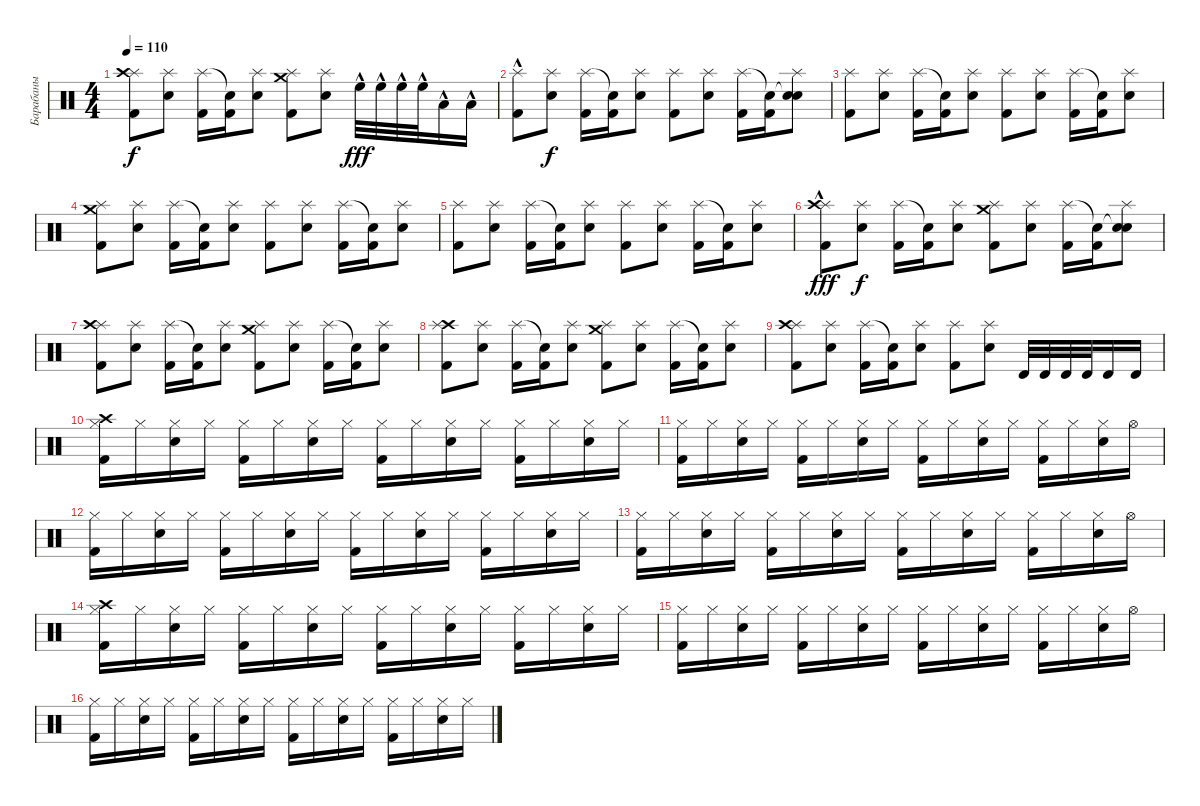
\track ("Барабаны" "Барабаны") {instrument percussion}
\staff {score}
\articulation defaults
\ts (4 4)
\tempo 110
\clef neutral
\ks c
("Kick (hit) 2" "Splash (hit)" "Crash high (hit)").8{dy f} ("Electric Snare (hit)" "Splash (hit)").8 ("Kick (hit) 2" "Splash (hit)").16 ("Kick (hit) 2" "Snare (hit)"{t}).16 ("Electric Snare (hit)" "Splash (hit)").8 ("Kick (hit) 2" "Crash medium (hit)" "Splash (hit)").8 ("Electric Snare (hit)" "Splash (hit)").8 "High Floor Tom (hit)"{hac}.32{dy fff} "High Floor Tom (hit)"{hac}.32 "High Floor Tom (hit)"{hac}.32 "High Floor Tom (hit)"{hac}.32 "Low Tom (hit)"{hac}.16 "Low Tom (hit)"{hac}.16 |
("Kick (hit) 2" "Splash (hit)"{hac}).8 ("Electric Snare (hit)" "Splash (hit)").8{dy f} ("Kick (hit) 2" "Splash (hit)").16 ("Kick (hit) 2" "Snare (hit)"{t}).16 ("Electric Snare (hit)" "Splash (hit)").8 ("Kick (hit) 2" "Splash (hit)").8 ("Electric Snare (hit)" "Splash (hit)").8 ("Kick (hit) 2" "Splash (hit)").16 ("Kick (hit) 2" "Snare (hit)"{t}).16 ("Electric Snare (hit)" "Snare (hit)"{t} "Splash (hit)").8 |
("Kick (hit) 2" "Splash (hit)").8 ("Electric Snare (hit)" "Splash (hit)").8 ("Kick (hit) 2" "Splash (hit)").16 ("Kick (hit) 2" "Snare (hit)"{t}).16 ("Electric Snare (hit)" "Splash (hit)").8 ("Kick (hit) 2" "Splash (hit)").8 ("Electric Snare (hit)" "Splash (hit)").8 ("Kick (hit) 2" "Splash (hit)").16 ("Kick (hit) 2" "Snare (hit)"{t}).16 ("Electric Snare (hit)" "Splash (hit)").8 |
("Kick (hit) 2" "Crash medium (hit)" "Splash (hit)").8 ("Electric Snare (hit)" "Splash (hit)").8 ("Kick (hit) 2" "Splash (hit)").16 ("Kick (hit) 2" "Snare (hit)"{t}).16 ("Electric Snare (hit)" "Splash (hit)").8 ("Kick (hit) 2" "Splash (hit)").8 ("Electric Snare (hit)" "Splash (hit)").8 ("Kick (hit) 2" "Splash (hit)").16 ("Kick (hit) 2" "Snare (hit)"{t}).16 ("Electric Snare (hit)" "Splash (hit)").8 |
("Kick (hit) 2" "Splash (hit)").8 ("Electric Snare (hit)" "Splash (hit)").8 ("Kick (hit) 2" "Splash (hit)").16 ("Kick (hit) 2" "Snare (hit)"{t}).16 ("Electric Snare (hit)" "Splash (hit)").8 ("Kick (hit) 2" "Splash (hit)").8 ("Electric Snare (hit)" "Splash (hit)").8 ("Kick (hit) 2" "Splash (hit)").16 ("Kick (hit) 2" "Snare (hit)"{t}).16 ("Electric Snare (hit)" "Splash (hit)").8 |
("Kick (hit) 2" "Splash (hit)"{hac} "Crash high (hit)").8{dy fff} ("Electric Snare (hit)" "Splash (hit)").8{dy f} ("Kick (hit) 2" "Splash (hit)").16 ("Kick (hit) 2" "Snare (hit)"{t}).16 ("Electric Snare (hit)" "Splash (hit)").8 ("Kick (hit) 2" "Crash medium (hit)" "Splash (hit)").8 ("Electric Snare (hit)" "Splash (hit)").8 ("Kick (hit) 2" "Splash (hit)").16 ("Kick (hit) 2" "Snare (hit)"{t}).16 ("Electric Snare (hit)" "Snare (hit)"{t} "Splash (hit)").8 |
("Kick (hit) 2" "Splash (hit)" "Crash high (hit)").8 ("Electric Snare (hit)" "Splash (hit)").8 ("Kick (hit) 2" "Splash (hit)").16 ("Kick (hit) 2" "Snare (hit)"{t}).16 ("Electric Snare (hit)" "Splash (hit)").8 ("Kick (hit) 2" "Crash medium (hit)" "Splash (hit)").8 ("Electric Snare (hit)" "Splash (hit)").8 ("Kick (hit) 2" "Splash (hit)").16 ("Kick (hit) 2" "Snare (hit)"{t}).16 ("Electric Snare (hit)" "Splash (hit)").8 |
("Kick (hit) 2" "Crash high (hit)" "Splash (hit)").8 ("Electric Snare (hit)" "Splash (hit)").8 ("Kick (hit) 2" "Splash (hit)").16 ("Kick (hit) 2" "Snare (hit)"{t}).16 ("Electric Snare (hit)" "Splash (hit)").8 ("Kick (hit) 2" "Crash medium (hit)" "Splash (hit)").8 ("Electric Snare (hit)" "Splash (hit)").8 ("Kick (hit) 2" "Splash (hit)").16 ("Kick (hit) 2" "Snare (hit)"{t}).16 ("Electric Snare (hit)" "Splash (hit)").8 |
("Kick (hit) 2" "Splash (hit)" "Crash high (hit)").8 ("Electric Snare (hit)" "Splash (hit)").8 ("Kick (hit) 2" "Splash (hit)").16 ("Kick (hit) 2" "Snare (hit)"{t}).16 ("Electric Snare (hit)" "Splash (hit)").8 ("Kick (hit) 2" "Splash (hit)").8 ("Electric Snare (hit)" "Splash (hit)").8 "Timbale high (hit)".32 "Timbale high (hit)".32 "Timbale high (hit)".32 "Timbale high (hit)".32 "Timbale high (hit)".16 "Timbale high (hit)".16 |
("Kick (hit) 2" "Crash high (hit)" "Hi-Hat (closed)").16 "Hi-Hat (closed)".16 ("Electric Snare (hit)" "Hi-Hat (closed)").16 "Hi-Hat (closed)".16 ("Kick (hit) 2" "Hi-Hat (closed)").16 "Hi-Hat (closed)".16 ("Electric Snare (hit)" "Hi-Hat (closed)").16 "Hi-Hat (closed)".16 ("Kick (hit) 2" "Hi-Hat (closed)").16 "Hi-Hat (closed)".16 ("Electric Snare (hit)" "Hi-Hat (closed)").16 "Hi-Hat (closed)".16 ("Kick (hit) 2" "Hi-Hat (closed)").16 "Hi-Hat (closed)".16 ("Electric Snare (hit)" "Hi-Hat (closed)").16 "Hi-Hat (closed)".16 |
("Kick (hit) 2" "Hi-Hat (closed)").16 "Hi-Hat (closed)".16 ("Electric Snare (hit)" "Hi-Hat (closed)").16 "Hi-Hat (closed)".16 ("Kick (hit) 2" "Hi-Hat (closed)").16 "Hi-Hat (closed)".16 ("Electric Snare (hit)" "Hi-Hat (closed)").16 "Hi-Hat (closed)".16 ("Kick (hit) 2" "Hi-Hat (closed)").16 "Hi-Hat (closed)".16 ("Electric Snare (hit)" "Hi-Hat (closed)").16 "Hi-Hat (closed)".16 ("Kick (hit) 2" "Hi-Hat (closed)").16 "Hi-Hat (closed)".16 ("Electric Snare (hit)" "Hi-Hat (closed)").16 "Hi-Hat (open)".16 |
("Kick (hit) 2" "Hi-Hat (closed)").16 "Hi-Hat (closed)".16 ("Electric Snare (hit)" "Hi-Hat (closed)").16 "Hi-Hat (closed)".16 ("Kick (hit) 2" "Hi-Hat (closed)").16 "Hi-Hat (closed)".16 ("Electric Snare (hit)" "Hi-Hat (closed)").16 "Hi-Hat (closed)".16 ("Kick (hit) 2" "Hi-Hat (closed)").16 "Hi-Hat (closed)".16 ("Electric Snare (hit)" "Hi-Hat (closed)").16 "Hi-Hat (closed)".16 ("Kick (hit) 2" "Hi-Hat (closed)").16 "Hi-Hat (closed)".16 ("Electric Snare (hit)" "Hi-Hat (closed)").16 "Hi-Hat (closed)".16 |
("Kick (hit) 2" "Hi-Hat (closed)").16 "Hi-Hat (closed)".16 ("Electric Snare (hit)" "Hi-Hat (closed)").16 "Hi-Hat (closed)".16 ("Kick (hit) 2" "Hi-Hat (closed)").16 "Hi-Hat (closed)".16 ("Electric Snare (hit)" "Hi-Hat (closed)").16 "Hi-Hat (closed)".16 ("Kick (hit) 2" "Hi-Hat (closed)").16 "Hi-Hat (closed)".16 ("Electric Snare (hit)" "Hi-Hat (closed)").16 "Hi-Hat (closed)".16 ("Kick (hit) 2" "Hi-Hat (closed)").16 "Hi-Hat (closed)".16 ("Electric Snare (hit)" "Hi-Hat (closed)").16 "Hi-Hat (open)".16 |
("Kick (hit) 2" "Crash high (hit)" "Hi-Hat (closed)").16 "Hi-Hat (closed)".16 ("Electric Snare (hit)" "Hi-Hat (closed)").16 "Hi-Hat (closed)".16 ("Kick (hit) 2" "Hi-Hat (closed)").16 "Hi-Hat (closed)".16 ("Electric Snare (hit)" "Hi-Hat (closed)").16 "Hi-Hat (closed)".16 ("Kick (hit) 2" "Hi-Hat (closed)").16 "Hi-Hat (closed)".16 ("Electric Snare (hit)" "Hi-Hat (closed)").16 "Hi-Hat (closed)".16 ("Kick (hit) 2" "Hi-Hat (closed)").16 "Hi-Hat (closed)".16 ("Electric Snare (hit)" "Hi-Hat (closed)").16 "Hi-Hat (closed)".16 |
("Kick (hit) 2" "Hi-Hat (closed)").16 "Hi-Hat (closed)".16 ("Electric Snare (hit)" "Hi-Hat (closed)").16 "Hi-Hat (closed)".16 ("Kick (hit) 2" "Hi-Hat (closed)").16 "Hi-Hat (closed)".16 ("Electric Snare (hit)" "Hi-Hat (closed)").16 "Hi-Hat (closed)".16 ("Kick (hit) 2" "Hi-Hat (closed)").16 "Hi-Hat (closed)".16 ("Electric Snare (hit)" "Hi-Hat (closed)").16 "Hi-Hat (closed)".16 ("Kick (hit) 2" "Hi-Hat (closed)").16 "Hi-Hat (closed)".16 ("Electric Snare (hit)" "Hi-Hat (closed)").16 "Hi-Hat (open)".16 |
("Kick (hit) 2" "Hi-Hat (closed)").16 "Hi-Hat (closed)".16 ("Electric Snare (hit)" "Hi-Hat (closed)").16 "Hi-Hat (closed)".16 ("Kick (hit) 2" "Hi-Hat (closed)").16 "Hi-Hat (closed)".16 ("Electric Snare (hit)" "Hi-Hat (closed)").16 "Hi-Hat (closed)".16 ("Kick (hit) 2" "Hi-Hat (closed)").16 "Hi-Hat (closed)".16 ("Electric Snare (hit)" "Hi-Hat (closed)").16 "Hi-Hat (closed)".16 ("Kick (hit) 2" "Hi-Hat (closed)").16 "Hi-Hat (closed)".16 ("Electric Snare (hit)" "Hi-Hat (closed)").16 "Hi-Hat (closed)".16
